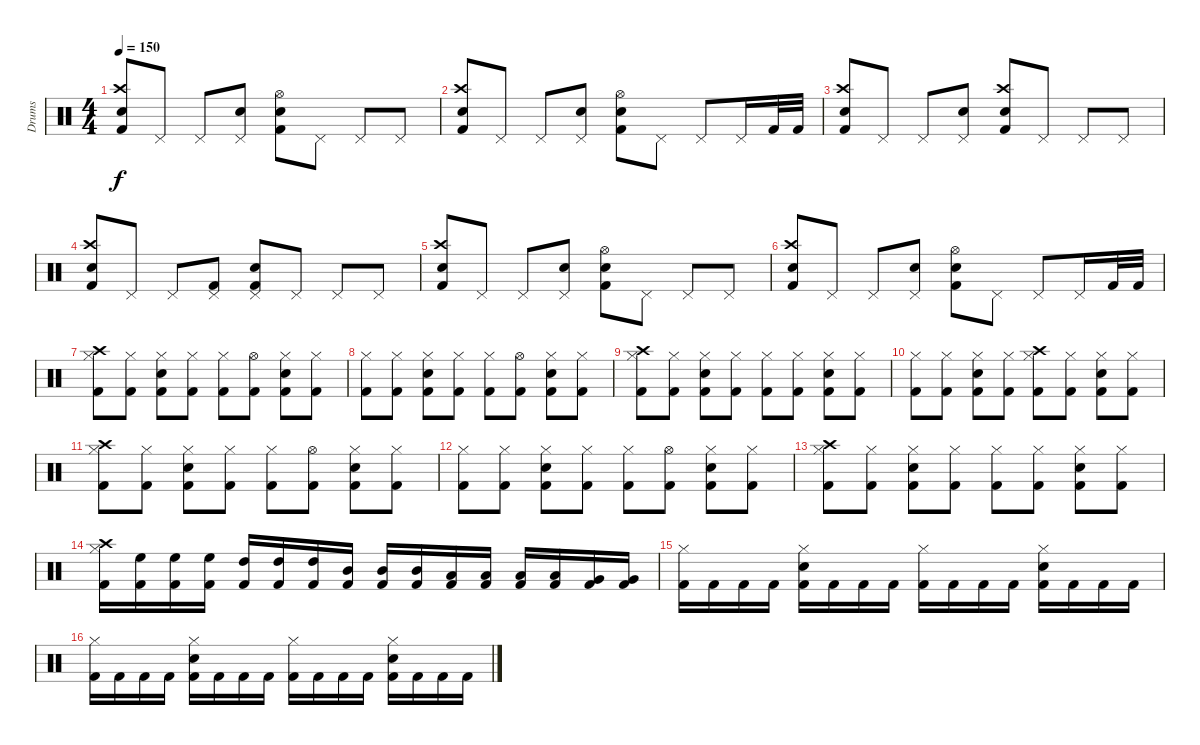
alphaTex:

\track ("Drums" "Drums") {instrument percussion}
\staff {score}
\articulation defaults
\ts (4 4)
\tempo 150
\clef neutral
\ks c
("Snare (hit) 2" "Crash high (hit)" "Kick (hit) 2").8{dy f} "Pedal Hi-Hat (hit)".8 "Pedal Hi-Hat (hit)".8 ("Pedal Hi-Hat (hit)" "Snare (hit) 2").8 ("Snare (hit) 2" "Hi-Hat (open)" "Kick (hit) 2").8 "Pedal Hi-Hat (hit)".8 "Pedal Hi-Hat (hit)".8 "Pedal Hi-Hat (hit)".8 |
("Snare (hit) 2" "Crash high (hit)" "Kick (hit) 2").8 "Pedal Hi-Hat (hit)".8 "Pedal Hi-Hat (hit)".8 ("Pedal Hi-Hat (hit)" "Snare (hit) 2").8 ("Snare (hit) 2" "Hi-Hat (open)" "Kick (hit) 2").8 "Pedal Hi-Hat (hit)".8 "Pedal Hi-Hat (hit)".8 "Pedal Hi-Hat (hit)".16 "Kick (hit) 2".32 "Kick (hit) 2".32 |
("Snare (hit) 2" "Crash high (hit)" "Kick (hit) 2").8 "Pedal Hi-Hat (hit)".8 "Pedal Hi-Hat (hit)".8 ("Pedal Hi-Hat (hit)" "Snare (hit) 2").8 ("Snare (hit) 2" "Crash high (hit)" "Kick (hit) 2").8 "Pedal Hi-Hat (hit)".8 "Pedal Hi-Hat (hit)".8 "Pedal Hi-Hat (hit)".8 |
("Snare (hit) 2" "Crash high (hit)" "Kick (hit) 2").8 "Pedal Hi-Hat (hit)".8 "Pedal Hi-Hat (hit)".8 ("Pedal Hi-Hat (hit)" "Kick (hit) 2").8 ("Snare (hit) 2" "Pedal Hi-Hat (hit)" "Kick (hit) 2").8 "Pedal Hi-Hat (hit)".8 "Pedal Hi-Hat (hit)".8 "Pedal Hi-Hat (hit)".8 |
("Snare (hit) 2" "Crash high (hit)" "Kick (hit) 2").8 "Pedal Hi-Hat (hit)".8 "Pedal Hi-Hat (hit)".8 ("Pedal Hi-Hat (hit)" "Snare (hit) 2").8 ("Snare (hit) 2" "Hi-Hat (open)" "Kick (hit) 2").8 "Pedal Hi-Hat (hit)".8 "Pedal Hi-Hat (hit)".8 "Pedal Hi-Hat (hit)".8 |
("Snare (hit) 2" "Crash high (hit)" "Kick (hit) 2").8 "Pedal Hi-Hat (hit)".8 "Pedal Hi-Hat (hit)".8 ("Pedal Hi-Hat (hit)" "Snare (hit) 2").8 ("Snare (hit) 2" "Hi-Hat (open)" "Kick (hit) 2").8 "Pedal Hi-Hat (hit)".8 "Pedal Hi-Hat (hit)".8 "Pedal Hi-Hat (hit)".16 "Kick (hit) 2".32 "Kick (hit) 2".32 |
("Crash high (hit)" "Hi-Hat (closed)" "Kick (hit) 2").8 ("Hi-Hat (closed)" "Kick (hit) 2").8 ("Snare (hit) 2" "Hi-Hat (closed)" "Kick (hit) 2").8 ("Hi-Hat (closed)" "Kick (hit) 2").8 ("Hi-Hat (closed)" "Kick (hit) 2").8 ("Hi-Hat (open)" "Kick (hit) 2").8 ("Snare (hit) 2" "Hi-Hat (closed)" "Kick (hit) 2").8 ("Hi-Hat (closed)" "Kick (hit) 2").8 |
("Hi-Hat (closed)" "Kick (hit) 2").8 ("Hi-Hat (closed)" "Kick (hit) 2").8 ("Snare (hit) 2" "Hi-Hat (closed)" "Kick (hit) 2").8 ("Hi-Hat (closed)" "Kick (hit) 2").8 ("Hi-Hat (closed)" "Kick (hit) 2").8 ("Hi-Hat (open)" "Kick (hit) 2").8 ("Snare (hit) 2" "Hi-Hat (closed)" "Kick (hit) 2").8 ("Hi-Hat (closed)" "Kick (hit) 2").8 |
("Crash high (hit)" "Hi-Hat (closed)" "Kick (hit) 2").8 ("Hi-Hat (closed)" "Kick (hit) 2").8 ("Snare (hit) 2" "Hi-Hat (closed)" "Kick (hit) 2").8 ("Hi-Hat (closed)" "Kick (hit) 2").8 ("Hi-Hat (closed)" "Kick (hit) 2").8 ("Hi-Hat (closed)" "Kick (hit) 2").8 ("Snare (hit) 2" "Hi-Hat (closed)" "Kick (hit) 2").8 ("Hi-Hat (closed)" "Kick (hit) 2").8 |
("Hi-Hat (closed)" "Kick (hit) 2").8 ("Hi-Hat (closed)" "Kick (hit) 2").8 ("Snare (hit) 2" "Hi-Hat (closed)" "Kick (hit) 2").8 ("Hi-Hat (closed)" "Kick (hit) 2").8 ("Crash high (hit)" "Hi-Hat (closed)" "Kick (hit) 2").8 ("Hi-Hat (closed)" "Kick (hit) 2").8 ("Snare (hit) 2" "Hi-Hat (closed)" "Kick (hit) 2").8 ("Hi-Hat (closed)" "Kick (hit) 2").8 |
("Crash high (hit)" "Hi-Hat (closed)" "Kick (hit) 2").8 ("Hi-Hat (closed)" "Kick (hit) 2").8 ("Snare (hit) 2" "Hi-Hat (closed)" "Kick (hit) 2").8 ("Hi-Hat (closed)" "Kick (hit) 2").8 ("Hi-Hat (closed)" "Kick (hit) 2").8 ("Hi-Hat (open)" "Kick (hit) 2").8 ("Snare (hit) 2" "Hi-Hat (closed)" "Kick (hit) 2").8 ("Hi-Hat (closed)" "Kick (hit) 2").8 |
("Hi-Hat (closed)" "Kick (hit) 2").8 ("Hi-Hat (closed)" "Kick (hit) 2").8 ("Snare (hit) 2" "Hi-Hat (closed)" "Kick (hit) 2").8 ("Hi-Hat (closed)" "Kick (hit) 2").8 ("Hi-Hat (closed)" "Kick (hit) 2").8 ("Hi-Hat (open)" "Kick (hit) 2").8 ("Snare (hit) 2" "Hi-Hat (closed)" "Kick (hit) 2").8 ("Hi-Hat (closed)" "Kick (hit) 2").8 |
("Crash high (hit)" "Hi-Hat (closed)" "Kick (hit) 2").8 ("Hi-Hat (closed)" "Kick (hit) 2").8 ("Snare (hit) 2" "Hi-Hat (closed)" "Kick (hit) 2").8 ("Hi-Hat (closed)" "Kick (hit) 2").8 ("Hi-Hat (closed)" "Kick (hit) 2").8 ("Hi-Hat (closed)" "Kick (hit) 2").8 ("Snare (hit) 2" "Hi-Hat (closed)" "Kick (hit) 2").8 ("Hi-Hat (closed)" "Kick (hit) 2").8 |
("Crash high (hit)" "Hi-Hat (closed)" "Kick (hit) 2").16 ("High Floor Tom (hit)" "Kick (hit) 2").16 ("High Floor Tom (hit)" "Kick (hit) 2").16 ("High Floor Tom (hit)" "Kick (hit) 2").16 ("High Tom (hit)" "Kick (hit) 2").16 ("High Tom (hit)" "Kick (hit) 2").16 ("High Tom (hit)" "Kick (hit) 2").16 ("Mid Tom (hit)" "Kick (hit) 2").16 ("Mid Tom (hit)" "Kick (hit) 2").16 ("Mid Tom (hit)" "Kick (hit) 2").16 ("Low Tom (hit)" "Kick (hit) 2").16 ("Low Tom (hit)" "Kick (hit) 2").16 ("Low Tom (hit)" "Kick (hit) 2").16 ("Low Tom (hit)" "Kick (hit) 2").16 ("Very Low Tom (hit)" "Kick (hit) 2").16 ("Very Low Tom (hit)" "Kick (hit) 2").16 |
("Hi-Hat (closed)" "Kick (hit) 2").16 "Kick (hit) 2".16 "Kick (hit) 2".16 "Kick (hit) 2".16 ("Snare (hit) 2" "Hi-Hat (closed)" "Kick (hit) 2").16 "Kick (hit) 2".16 "Kick (hit) 2".16 "Kick (hit) 2".16 ("Hi-Hat (closed)" "Kick (hit) 2").16 "Kick (hit) 2".16 "Kick (hit) 2".16 "Kick (hit) 2".16 ("Snare (hit) 2" "Hi-Hat (closed)" "Kick (hit) 2").16 "Kick (hit) 2".16 "Kick (hit) 2".16 "Kick (hit) 2".16 |
("Hi-Hat (closed)" "Kick (hit) 2").16 "Kick (hit) 2".16 "Kick (hit) 2".16 "Kick (hit) 2".16 ("Snare (hit) 2" "Hi-Hat (closed)" "Kick (hit) 2").16 "Kick (hit) 2".16 "Kick (hit) 2".16 "Kick (hit) 2".16 ("Hi-Hat (closed)" "Kick (hit) 2").16 "Kick (hit) 2".16 "Kick (hit) 2".16 "Kick (hit) 2".16 ("Snare (hit) 2" "Hi-Hat (closed)" "Kick (hit) 2").16 "Kick (hit) 2".16 "Kick (hit) 2".16 "Kick (hit) 2".16
